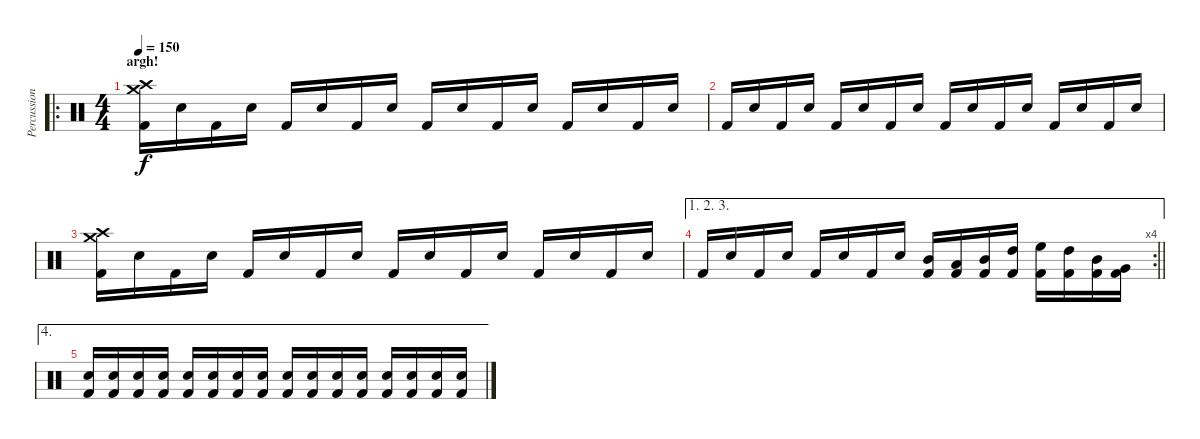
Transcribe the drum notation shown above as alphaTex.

\track ("Percussion" "Percussion") {instrument percussion}
\staff {score}
\articulation defaults
\ro
\ts (4 4)
\section ("" "argh!")
\tempo 150
\clef neutral
\ks c
("Kick (hit) 2" "Crash high (hit)" "Crash medium (hit)").16{dy f} "Snare (hit) 2".16 "Kick (hit) 2".16 "Snare (hit) 2".16 "Kick (hit) 2".16 "Snare (hit) 2".16 "Kick (hit) 2".16 "Snare (hit) 2".16 "Kick (hit) 2".16 "Snare (hit) 2".16 "Kick (hit) 2".16 "Snare (hit) 2".16 "Kick (hit) 2".16 "Snare (hit) 2".16 "Kick (hit) 2".16 "Snare (hit) 2".16 |
"Kick (hit) 2".16 "Snare (hit) 2".16 "Kick (hit) 2".16 "Snare (hit) 2".16 "Kick (hit) 2".16 "Snare (hit) 2".16 "Kick (hit) 2".16 "Snare (hit) 2".16 "Kick (hit) 2".16 "Snare (hit) 2".16 "Kick (hit) 2".16 "Snare (hit) 2".16 "Kick (hit) 2".16 "Snare (hit) 2".16 "Kick (hit) 2".16 "Snare (hit) 2".16 |
("Kick (hit) 2" "Crash high (hit)" "Crash medium (hit)").16 "Snare (hit) 2".16 "Kick (hit) 2".16 "Snare (hit) 2".16 "Kick (hit) 2".16 "Snare (hit) 2".16 "Kick (hit) 2".16 "Snare (hit) 2".16 "Kick (hit) 2".16 "Snare (hit) 2".16 "Kick (hit) 2".16 "Snare (hit) 2".16 "Kick (hit) 2".16 "Snare (hit) 2".16 "Kick (hit) 2".16 "Snare (hit) 2".16 |
\ae (1 2 3)
\rc 4
\barLineRight lightlight "Kick (hit) 2".16 "Snare (hit) 2".16 "Kick (hit) 2".16 "Snare (hit) 2".16 "Kick (hit) 2".16 "Snare (hit) 2".16 "Kick (hit) 2".16 "Snare (hit) 2".16
("Kick (hit) 2" "Mid Tom (hit)").16 ("Kick (hit) 2" "Low Tom (hit)").16 ("Kick (hit) 2" "Mid Tom (hit)").16 ("Kick (hit) 2" "High Tom (hit)").16 ("Kick (hit) 2" "High Floor Tom (hit)").16 ("Kick (hit) 2" "High Tom (hit)").16 ("Kick (hit) 2" "Mid Tom (hit)").16 ("Kick (hit) 2" "Very Low Tom (hit)").16 |
\ae 4
\section ("" "")
("Kick (hit) 2" "Snare (hit) 2").16 ("Kick (hit) 2" "Snare (hit) 2").16 ("Kick (hit) 2" "Snare (hit) 2").16 ("Kick (hit) 2" "Snare (hit) 2").16 ("Kick (hit) 2" "Snare (hit) 2").16 ("Kick (hit) 2" "Snare (hit) 2").16 ("Kick (hit) 2" "Snare (hit) 2").16 ("Kick (hit) 2" "Snare (hit) 2").16 ("Kick (hit) 2" "Snare (hit) 2").16 ("Kick (hit) 2" "Snare (hit) 2").16 ("Kick (hit) 2" "Snare (hit) 2").16 ("Kick (hit) 2" "Snare (hit) 2").16 ("Kick (hit) 2" "Snare (hit) 2").16 ("Kick (hit) 2" "Snare (hit) 2").16 ("Kick (hit) 2" "Snare (hit) 2").16 ("Kick (hit) 2" "Snare (hit) 2").16
